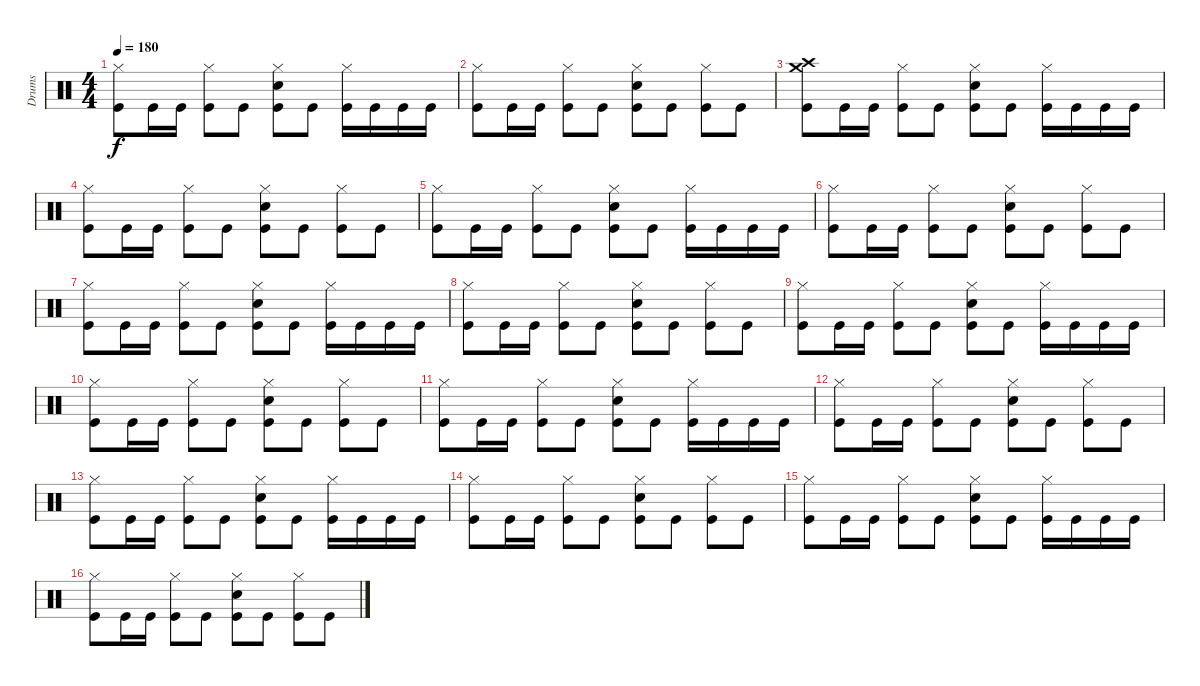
\track ("Drums" "Drums") {instrument percussion}
\staff {score}
\articulation defaults
\ts (4 4)
\tempo 180
\clef neutral
\ks c
("Hi-Hat (closed)" "Kick (hit)").8{dy f} "Kick (hit)".16 "Kick (hit)".16 ("Hi-Hat (closed)" "Kick (hit)").8 "Kick (hit)".8 ("Hi-Hat (closed)" "Electric Snare (hit)" "Kick (hit)").8 "Kick (hit)".8 ("Hi-Hat (closed)" "Kick (hit)").16 "Kick (hit)".16 "Kick (hit)".16 "Kick (hit)".16 |
("Hi-Hat (closed)" "Kick (hit)").8 "Kick (hit)".16 "Kick (hit)".16 ("Hi-Hat (closed)" "Kick (hit)").8 "Kick (hit)".8 ("Hi-Hat (closed)" "Electric Snare (hit)" "Kick (hit)").8 "Kick (hit)".8 ("Hi-Hat (closed)" "Kick (hit)").8 "Kick (hit)".8 |
("Crash high (hit)" "Crash medium (hit)" "Kick (hit)").8 "Kick (hit)".16 "Kick (hit)".16 ("Hi-Hat (closed)" "Kick (hit)").8 "Kick (hit)".8 ("Hi-Hat (closed)" "Electric Snare (hit)" "Kick (hit)").8 "Kick (hit)".8 ("Hi-Hat (closed)" "Kick (hit)").16 "Kick (hit)".16 "Kick (hit)".16 "Kick (hit)".16 |
("Hi-Hat (closed)" "Kick (hit)").8 "Kick (hit)".16 "Kick (hit)".16 ("Hi-Hat (closed)" "Kick (hit)").8 "Kick (hit)".8 ("Hi-Hat (closed)" "Electric Snare (hit)" "Kick (hit)").8 "Kick (hit)".8 ("Hi-Hat (closed)" "Kick (hit)").8 "Kick (hit)".8 |
("Hi-Hat (closed)" "Kick (hit)").8 "Kick (hit)".16 "Kick (hit)".16 ("Hi-Hat (closed)" "Kick (hit)").8 "Kick (hit)".8 ("Hi-Hat (closed)" "Electric Snare (hit)" "Kick (hit)").8 "Kick (hit)".8 ("Hi-Hat (closed)" "Kick (hit)").16 "Kick (hit)".16 "Kick (hit)".16 "Kick (hit)".16 |
("Hi-Hat (closed)" "Kick (hit)").8 "Kick (hit)".16 "Kick (hit)".16 ("Hi-Hat (closed)" "Kick (hit)").8 "Kick (hit)".8 ("Hi-Hat (closed)" "Electric Snare (hit)" "Kick (hit)").8 "Kick (hit)".8 ("Hi-Hat (closed)" "Kick (hit)").8 "Kick (hit)".8 |
("Hi-Hat (closed)" "Kick (hit)").8 "Kick (hit)".16 "Kick (hit)".16 ("Hi-Hat (closed)" "Kick (hit)").8 "Kick (hit)".8 ("Hi-Hat (closed)" "Electric Snare (hit)" "Kick (hit)").8 "Kick (hit)".8 ("Hi-Hat (closed)" "Kick (hit)").16 "Kick (hit)".16 "Kick (hit)".16 "Kick (hit)".16 |
("Hi-Hat (closed)" "Kick (hit)").8 "Kick (hit)".16 "Kick (hit)".16 ("Hi-Hat (closed)" "Kick (hit)").8 "Kick (hit)".8 ("Hi-Hat (closed)" "Electric Snare (hit)" "Kick (hit)").8 "Kick (hit)".8 ("Hi-Hat (closed)" "Kick (hit)").8 "Kick (hit)".8 |
("Hi-Hat (closed)" "Kick (hit)").8 "Kick (hit)".16 "Kick (hit)".16 ("Hi-Hat (closed)" "Kick (hit)").8 "Kick (hit)".8 ("Hi-Hat (closed)" "Electric Snare (hit)" "Kick (hit)").8 "Kick (hit)".8 ("Hi-Hat (closed)" "Kick (hit)").16 "Kick (hit)".16 "Kick (hit)".16 "Kick (hit)".16 |
("Hi-Hat (closed)" "Kick (hit)").8 "Kick (hit)".16 "Kick (hit)".16 ("Hi-Hat (closed)" "Kick (hit)").8 "Kick (hit)".8 ("Hi-Hat (closed)" "Electric Snare (hit)" "Kick (hit)").8 "Kick (hit)".8 ("Hi-Hat (closed)" "Kick (hit)").8 "Kick (hit)".8 |
("Hi-Hat (closed)" "Kick (hit)").8 "Kick (hit)".16 "Kick (hit)".16 ("Hi-Hat (closed)" "Kick (hit)").8 "Kick (hit)".8 ("Hi-Hat (closed)" "Electric Snare (hit)" "Kick (hit)").8 "Kick (hit)".8 ("Hi-Hat (closed)" "Kick (hit)").16 "Kick (hit)".16 "Kick (hit)".16 "Kick (hit)".16 |
("Hi-Hat (closed)" "Kick (hit)").8 "Kick (hit)".16 "Kick (hit)".16 ("Hi-Hat (closed)" "Kick (hit)").8 "Kick (hit)".8 ("Hi-Hat (closed)" "Electric Snare (hit)" "Kick (hit)").8 "Kick (hit)".8 ("Hi-Hat (closed)" "Kick (hit)").8 "Kick (hit)".8 |
("Hi-Hat (closed)" "Kick (hit)").8 "Kick (hit)".16 "Kick (hit)".16 ("Hi-Hat (closed)" "Kick (hit)").8 "Kick (hit)".8 ("Hi-Hat (closed)" "Electric Snare (hit)" "Kick (hit)").8 "Kick (hit)".8 ("Hi-Hat (closed)" "Kick (hit)").16 "Kick (hit)".16 "Kick (hit)".16 "Kick (hit)".16 |
("Hi-Hat (closed)" "Kick (hit)").8 "Kick (hit)".16 "Kick (hit)".16 ("Hi-Hat (closed)" "Kick (hit)").8 "Kick (hit)".8 ("Hi-Hat (closed)" "Electric Snare (hit)" "Kick (hit)").8 "Kick (hit)".8 ("Hi-Hat (closed)" "Kick (hit)").8 "Kick (hit)".8 |
("Hi-Hat (closed)" "Kick (hit)").8 "Kick (hit)".16 "Kick (hit)".16 ("Hi-Hat (closed)" "Kick (hit)").8 "Kick (hit)".8 ("Hi-Hat (closed)" "Electric Snare (hit)" "Kick (hit)").8 "Kick (hit)".8 ("Hi-Hat (closed)" "Kick (hit)").16 "Kick (hit)".16 "Kick (hit)".16 "Kick (hit)".16 |
("Hi-Hat (closed)" "Kick (hit)").8 "Kick (hit)".16 "Kick (hit)".16 ("Hi-Hat (closed)" "Kick (hit)").8 "Kick (hit)".8 ("Hi-Hat (closed)" "Electric Snare (hit)" "Kick (hit)").8 "Kick (hit)".8 ("Hi-Hat (closed)" "Kick (hit)").8 "Kick (hit)".8
